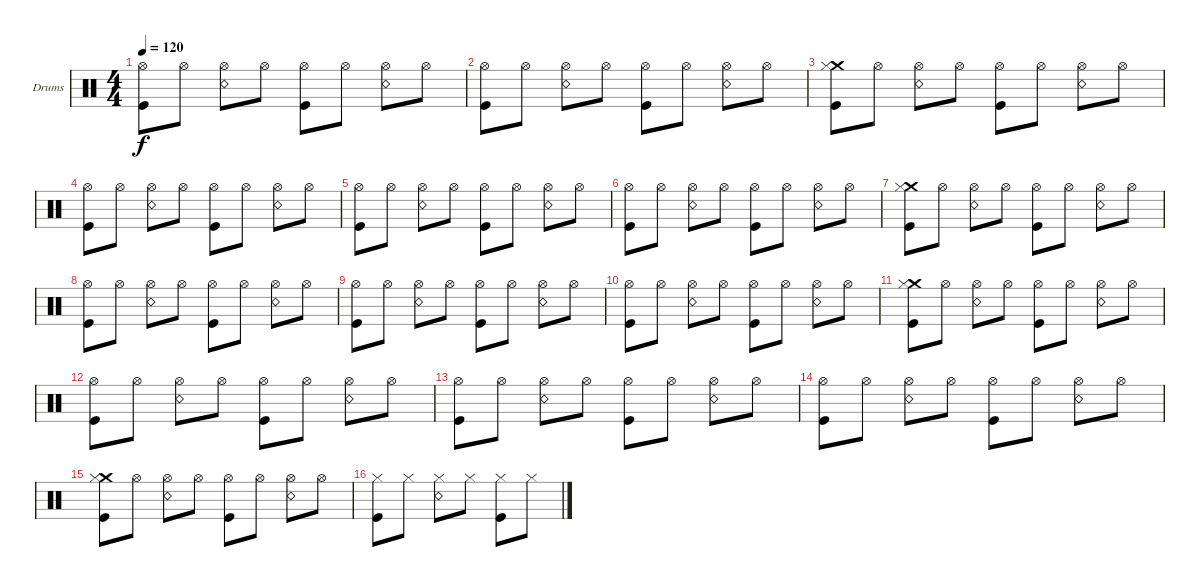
\defaultSystemsLayout 4
\bracketExtendMode groupsimilarinstruments
\firstSystemTrackNameOrientation horizontal
\otherSystemsTrackNameOrientation horizontal
\track ("Drumkit" "Drums") {instrument percussion}
\staff {score}
\articulation defaults
\ts (4 4)
\tempo 120
\clef neutral
\scale
0.333333
\ks c
("Kick (hit)" "Hi-Hat (open)").8{dy f} "Hi-Hat (open)".8 ("Hi-Hat (open)" "Snare (rim shot)").8 "Hi-Hat (open)".8 ("Hi-Hat (open)" "Kick (hit)").8 "Hi-Hat (open)".8 ("Hi-Hat (open)" "Snare (rim shot)").8 "Hi-Hat (open)".8 |
\scale
0.333333 ("Kick (hit)" "Hi-Hat (open)").8 "Hi-Hat (open)".8 ("Hi-Hat (open)" "Snare (rim shot)").8 "Hi-Hat (open)".8 ("Hi-Hat (open)" "Kick (hit)").8 "Hi-Hat (open)".8 ("Hi-Hat (open)" "Snare (rim shot)").8 "Hi-Hat (open)".8 |
\scale
0.333333 ("Kick (hit)" "Crash medium (hit)" "Hi-Hat (closed)").8 "Hi-Hat (open)".8 ("Hi-Hat (open)" "Snare (rim shot)").8 "Hi-Hat (open)".8 ("Hi-Hat (open)" "Kick (hit)").8 "Hi-Hat (open)".8 ("Hi-Hat (open)" "Snare (rim shot)").8 "Hi-Hat (open)".8 |
\scale
0.333333 ("Kick (hit)" "Hi-Hat (open)").8 "Hi-Hat (open)".8 ("Hi-Hat (open)" "Snare (rim shot)").8 "Hi-Hat (open)".8 ("Hi-Hat (open)" "Kick (hit)").8 "Hi-Hat (open)".8 ("Hi-Hat (open)" "Snare (rim shot)").8 "Hi-Hat (open)".8 |
\scale
0.333333 ("Kick (hit)" "Hi-Hat (open)").8 "Hi-Hat (open)".8 ("Hi-Hat (open)" "Snare (rim shot)").8 "Hi-Hat (open)".8 ("Hi-Hat (open)" "Kick (hit)").8 "Hi-Hat (open)".8 ("Hi-Hat (open)" "Snare (rim shot)").8 "Hi-Hat (open)".8 |
\scale
0.333333 ("Kick (hit)" "Hi-Hat (open)").8 "Hi-Hat (open)".8 ("Hi-Hat (open)" "Snare (rim shot)").8 "Hi-Hat (open)".8 ("Hi-Hat (open)" "Kick (hit)").8 "Hi-Hat (open)".8 ("Hi-Hat (open)" "Snare (rim shot)").8 "Hi-Hat (open)".8 |
\scale
0.333333 ("Kick (hit)" "Crash medium (hit)" "Hi-Hat (closed)").8 "Hi-Hat (open)".8 ("Hi-Hat (open)" "Snare (rim shot)").8 "Hi-Hat (open)".8 ("Hi-Hat (open)" "Kick (hit)").8 "Hi-Hat (open)".8 ("Hi-Hat (open)" "Snare (rim shot)").8 "Hi-Hat (open)".8 |
\scale
0.333333 ("Kick (hit)" "Hi-Hat (open)").8 "Hi-Hat (open)".8 ("Hi-Hat (open)" "Snare (rim shot)").8 "Hi-Hat (open)".8 ("Hi-Hat (open)" "Kick (hit)").8 "Hi-Hat (open)".8 ("Hi-Hat (open)" "Snare (rim shot)").8 "Hi-Hat (open)".8 |
\scale
0.333333 ("Kick (hit)" "Hi-Hat (open)").8 "Hi-Hat (open)".8 ("Hi-Hat (open)" "Snare (rim shot)").8 "Hi-Hat (open)".8 ("Hi-Hat (open)" "Kick (hit)").8 "Hi-Hat (open)".8 ("Hi-Hat (open)" "Snare (rim shot)").8 "Hi-Hat (open)".8 |
\scale
0.333333 ("Kick (hit)" "Hi-Hat (open)").8 "Hi-Hat (open)".8 ("Hi-Hat (open)" "Snare (rim shot)").8 "Hi-Hat (open)".8 ("Hi-Hat (open)" "Kick (hit)").8 "Hi-Hat (open)".8 ("Hi-Hat (open)" "Snare (rim shot)").8 "Hi-Hat (open)".8 |
\scale
0.333333 ("Kick (hit)" "Crash medium (hit)" "Hi-Hat (closed)").8 "Hi-Hat (open)".8 ("Hi-Hat (open)" "Snare (rim shot)").8 "Hi-Hat (open)".8 ("Hi-Hat (open)" "Kick (hit)").8 "Hi-Hat (open)".8 ("Hi-Hat (open)" "Snare (rim shot)").8 "Hi-Hat (open)".8 |
\scale
0.333333 ("Kick (hit)" "Hi-Hat (open)").8 "Hi-Hat (open)".8 ("Hi-Hat (open)" "Snare (rim shot)").8 "Hi-Hat (open)".8 ("Hi-Hat (open)" "Kick (hit)").8 "Hi-Hat (open)".8 ("Hi-Hat (open)" "Snare (rim shot)").8 "Hi-Hat (open)".8 |
\scale
0.333333 ("Kick (hit)" "Hi-Hat (open)").8 "Hi-Hat (open)".8 ("Hi-Hat (open)" "Snare (rim shot)").8 "Hi-Hat (open)".8 ("Hi-Hat (open)" "Kick (hit)").8 "Hi-Hat (open)".8 ("Hi-Hat (open)" "Snare (rim shot)").8 "Hi-Hat (open)".8 |
\scale
0.333333 ("Kick (hit)" "Hi-Hat (open)").8 "Hi-Hat (open)".8 ("Hi-Hat (open)" "Snare (rim shot)").8 "Hi-Hat (open)".8 ("Hi-Hat (open)" "Kick (hit)").8 "Hi-Hat (open)".8 ("Hi-Hat (open)" "Snare (rim shot)").8 "Hi-Hat (open)".8 |
\scale
0.333333 ("Kick (hit)" "Crash medium (hit)" "Hi-Hat (closed)").8 "Hi-Hat (open)".8 ("Hi-Hat (open)" "Snare (rim shot)").8 "Hi-Hat (open)".8 ("Hi-Hat (open)" "Kick (hit)").8 "Hi-Hat (open)".8 ("Hi-Hat (open)" "Snare (rim shot)").8 "Hi-Hat (open)".8 |
\scale
0.333333 ("Kick (hit)" "Hi-Hat (closed)").8 "Hi-Hat (closed)".8 ("Hi-Hat (closed)" "Snare (rim shot)").8 "Hi-Hat (closed)".8 ("Hi-Hat (closed)" "Kick (hit)").8 "Hi-Hat (closed)".8
